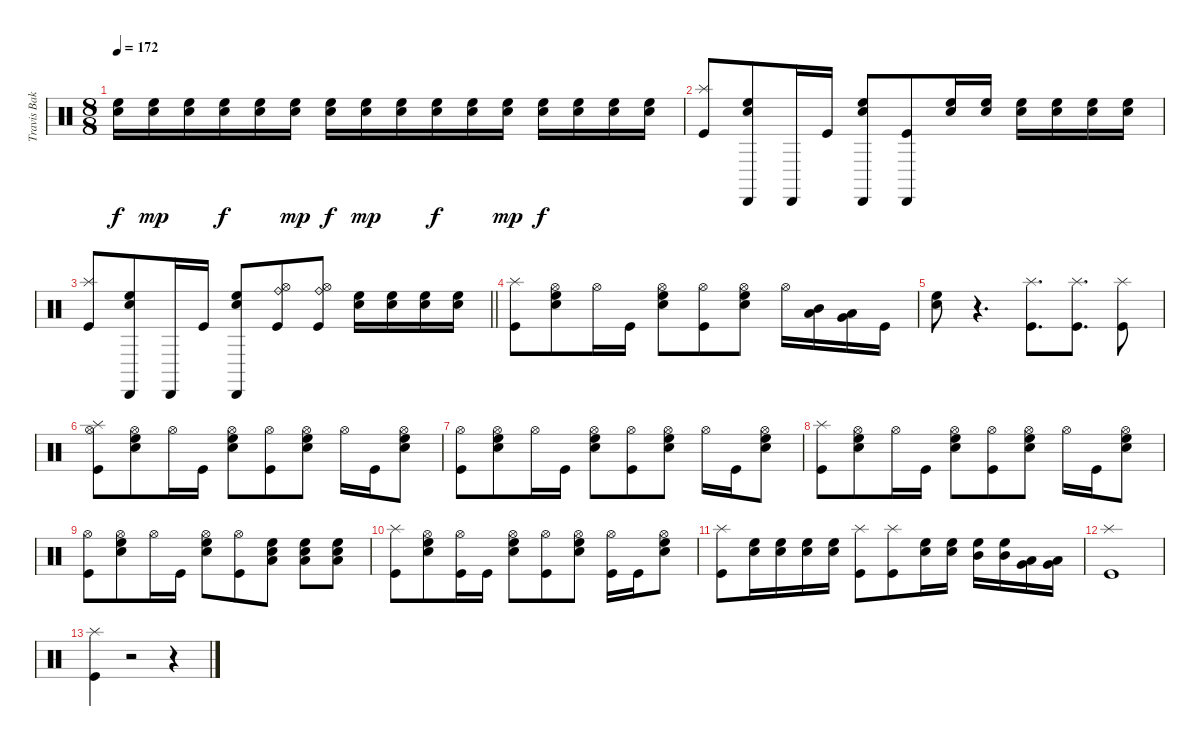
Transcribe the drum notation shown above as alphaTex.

\track ("Travis Baker (Drums)" "Travis Bak") {instrument percussion}
\staff {score}
\articulation defaults
\ts (8 8)
\tempo 172
\clef neutral
\ks c
("High Floor Tom (hit)" "Electric Snare (hit)").16{dy f} ("Electric Snare (hit)" "High Floor Tom (hit)").16{dy mp} ("Electric Snare (hit)" "High Floor Tom (hit)").16 ("High Floor Tom (hit)" "Electric Snare (hit)").16{dy f} ("High Floor Tom (hit)" "Electric Snare (hit)").16 ("Electric Snare (hit)" "High Floor Tom (hit)").16{dy mp} ("High Floor Tom (hit)" "Electric Snare (hit)").16{dy f} ("Electric Snare (hit)" "High Floor Tom (hit)").16{dy mp} ("Electric Snare (hit)" "High Floor Tom (hit)").16 ("High Floor Tom (hit)" "Electric Snare (hit)").16{dy f} ("High Floor Tom (hit)" "Electric Snare (hit)").16 ("Electric Snare (hit)" "High Floor Tom (hit)").16{dy mp} ("High Floor Tom (hit)" "Electric Snare (hit)").16{dy f} ("High Floor Tom (hit)" "Electric Snare (hit)").16 ("High Floor Tom (hit)" "Electric Snare (hit)").16 ("High Floor Tom (hit)" "Electric Snare (hit)").16 |
("Splash (hit)" "Kick (hit)").8 ("Cabasa (hit)" "High Floor Tom (hit)" "Electric Snare (hit)").8 "Cabasa (hit)".16 "Kick (hit)".16 ("Cabasa (hit)" "High Floor Tom (hit)" "Electric Snare (hit)").8 ("Cabasa (hit)" "Kick (hit)").8 ("High Floor Tom (hit)" "Electric Snare (hit)").16 ("High Floor Tom (hit)" "Electric Snare (hit)").16 ("High Floor Tom (hit)" "Electric Snare (hit)").16 ("High Floor Tom (hit)" "Electric Snare (hit)").16 ("High Floor Tom (hit)" "Electric Snare (hit)").16 ("High Floor Tom (hit)" "Electric Snare (hit)").16 |
\barLineRight lightlight
("Splash (hit)" "Kick (hit)").8 ("Cabasa (hit)" "High Floor Tom (hit)" "Electric Snare (hit)").8 "Cabasa (hit)".16 "Kick (hit)".16 ("Cabasa (hit)" "High Floor Tom (hit)" "Electric Snare (hit)").8 ("Ride (bell)" "Hi-Hat (open)" "Kick (hit)").8 ("Ride (bell)" "Hi-Hat (open)" "Kick (hit)").8 ("High Floor Tom (hit)" "Electric Snare (hit)").16 ("High Floor Tom (hit)" "Electric Snare (hit)").16 ("High Floor Tom (hit)" "Electric Snare (hit)").16 ("High Floor Tom (hit)" "Electric Snare (hit)").16 |
("Splash (hit)" "Kick (hit)").8 ("Hi-Hat (open)" "High Floor Tom (hit)" "Electric Snare (hit)").8 "Hi-Hat (open)".16 "Kick (hit)".16 ("Hi-Hat (open)" "High Floor Tom (hit)" "Electric Snare (hit)").8 ("Hi-Hat (open)" "Kick (hit)").8 ("Hi-Hat (open)" "High Floor Tom (hit)" "Electric Snare (hit)").8 "Hi-Hat (open)".16 ("Low Tom (hit)" "Mid Tom (hit)").16 ("Very Low Tom (hit)" "Low Floor Tom (hit)").16 "Kick (hit)".16 |
("High Floor Tom (hit)" "Electric Snare (hit)").8 r.4{d} ("Splash (hit)" "Kick (hit)").8{d} ("Splash (hit)" "Kick (hit)").8{d} ("Splash (hit)" "Kick (hit)").8 |
("Splash (hit)" "Hi-Hat (open)" "Kick (hit)").8 ("Hi-Hat (open)" "High Floor Tom (hit)" "Electric Snare (hit)").8 "Hi-Hat (open)".16 "Kick (hit)".16 ("Hi-Hat (open)" "High Floor Tom (hit)" "Electric Snare (hit)").8 ("Hi-Hat (open)" "Kick (hit)").8 ("Hi-Hat (open)" "High Floor Tom (hit)" "Electric Snare (hit)").8 "Hi-Hat (open)".16 "Kick (hit)".16 ("Hi-Hat (open)" "High Floor Tom (hit)" "Electric Snare (hit)").8 |
("Hi-Hat (open)" "Kick (hit)").8 ("Hi-Hat (open)" "High Floor Tom (hit)" "Electric Snare (hit)").8 "Hi-Hat (open)".16 "Kick (hit)".16 ("Hi-Hat (open)" "High Floor Tom (hit)" "Electric Snare (hit)").8 ("Hi-Hat (open)" "Kick (hit)").8 ("Hi-Hat (open)" "High Floor Tom (hit)" "Electric Snare (hit)").8 "Hi-Hat (open)".16 "Kick (hit)".16 ("Hi-Hat (open)" "High Floor Tom (hit)" "Electric Snare (hit)").8 |
("Splash (hit)" "Kick (hit)").8 ("Hi-Hat (open)" "High Floor Tom (hit)" "Electric Snare (hit)").8 "Hi-Hat (open)".16 "Kick (hit)".16 ("Hi-Hat (open)" "High Floor Tom (hit)" "Electric Snare (hit)").8 ("Hi-Hat (open)" "Kick (hit)").8 ("Hi-Hat (open)" "High Floor Tom (hit)" "Electric Snare (hit)").8 "Hi-Hat (open)".16 "Kick (hit)".16 ("Hi-Hat (open)" "High Floor Tom (hit)" "Electric Snare (hit)").8 |
("Hi-Hat (open)" "Kick (hit)").8 ("Hi-Hat (open)" "High Floor Tom (hit)" "Electric Snare (hit)").8 "Hi-Hat (open)".16 "Kick (hit)".16 ("Hi-Hat (open)" "High Floor Tom (hit)" "Electric Snare (hit)").8 ("Hi-Hat (open)" "Kick (hit)").8 ("Low Tom (hit)" "High Floor Tom (hit)" "Electric Snare (hit)").8 ("Low Tom (hit)" "High Floor Tom (hit)" "Electric Snare (hit)").8 ("Low Tom (hit)" "High Floor Tom (hit)" "Electric Snare (hit)").8 |
("Splash (hit)" "Kick (hit)").8 ("Hi-Hat (open)" "High Floor Tom (hit)" "Electric Snare (hit)").8 ("Hi-Hat (open)" "Kick (hit)").16 "Kick (hit)".16 ("Hi-Hat (open)" "High Floor Tom (hit)" "Electric Snare (hit)").8 ("Hi-Hat (open)" "Kick (hit)").8 ("Hi-Hat (open)" "High Floor Tom (hit)" "Electric Snare (hit)").8 ("Hi-Hat (open)" "Kick (hit)").16 "Kick (hit)".16 ("Hi-Hat (open)" "High Floor Tom (hit)" "Electric Snare (hit)").8 |
("Splash (hit)" "Kick (hit)").8 ("High Floor Tom (hit)" "Electric Snare (hit)").16 ("High Floor Tom (hit)" "Electric Snare (hit)").16 ("High Floor Tom (hit)" "Electric Snare (hit)").16 ("High Floor Tom (hit)" "Electric Snare (hit)").16 ("Kick (hit)" "Splash (hit)").8 ("Splash (hit)" "Kick (hit)").8 ("High Floor Tom (hit)" "Electric Snare (hit)").16 ("High Floor Tom (hit)" "Electric Snare (hit)").16 ("Mid Tom (hit)" "High Floor Tom (hit)").16 ("Mid Tom (hit)" "High Floor Tom (hit)").16 ("Low Tom (hit)" "Very Low Tom (hit)").16 ("Low Tom (hit)" "Very Low Tom (hit)").16 |
("Kick (hit)" "Splash (hit)").1 |
("Splash (hit)" "Kick (hit)").4 r.2 r.4
